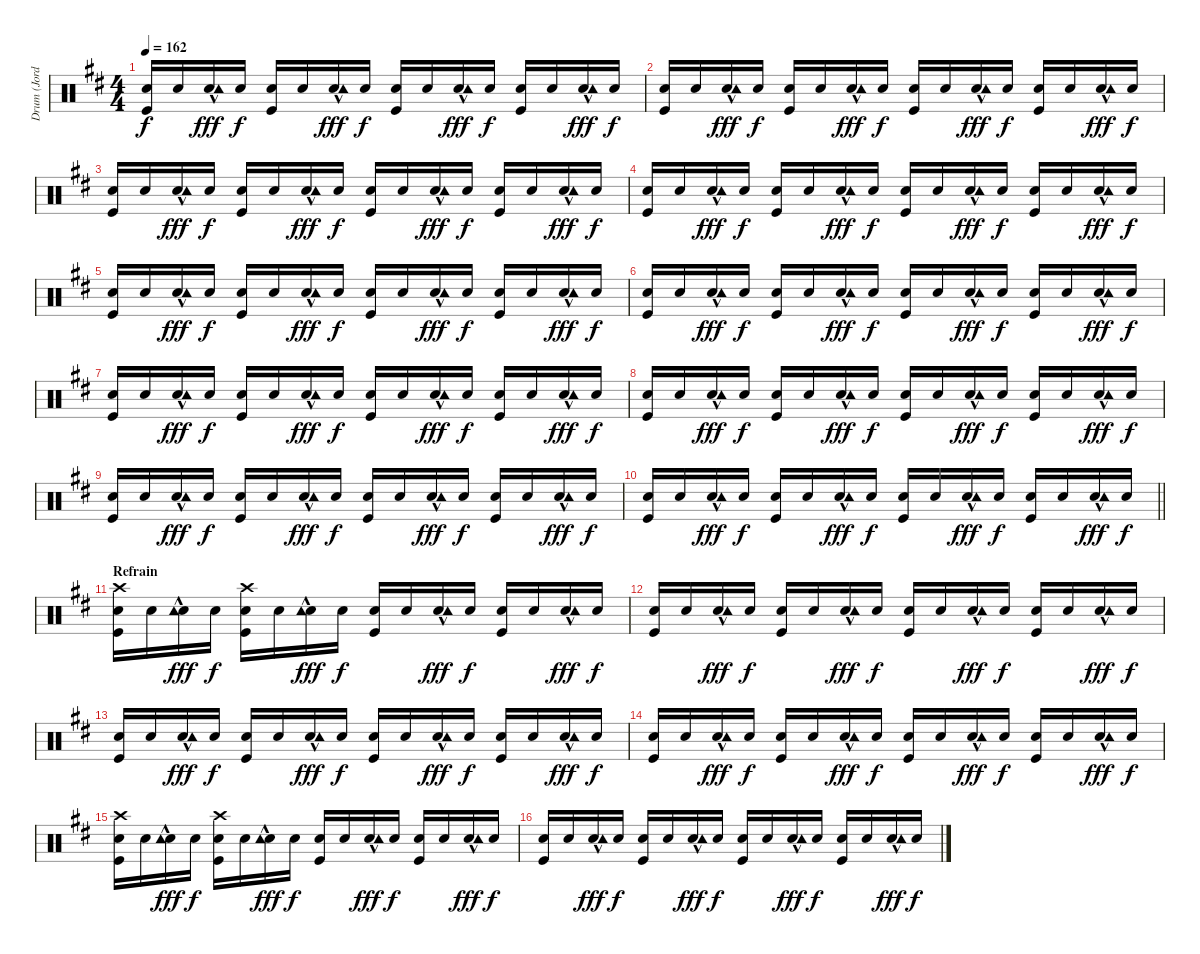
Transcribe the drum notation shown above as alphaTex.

\track ("Drum (Jordan)" "Drum (Jord") {instrument percussion}
\staff {score}
\articulation defaults
\ts (4 4)
\tempo 162
\clef neutral
\ks d
("Snare (hit) 2" "Kick (hit)").16{dy f} "Snare (hit) 2".16 ("Snare (hit) 2"{hac} "Tambourine (hit)").16{dy fff} "Snare (hit) 2".16{dy f} ("Snare (hit) 2" "Kick (hit)").16 "Snare (hit) 2".16 ("Snare (hit) 2"{hac} "Tambourine (hit)").16{dy fff} "Snare (hit) 2".16{dy f} ("Snare (hit) 2" "Kick (hit)").16 "Snare (hit) 2".16 ("Snare (hit) 2"{hac} "Tambourine (hit)").16{dy fff} "Snare (hit) 2".16{dy f} ("Snare (hit) 2" "Kick (hit)").16 "Snare (hit) 2".16 ("Snare (hit) 2"{hac} "Tambourine (hit)").16{dy fff} "Snare (hit) 2".16{dy f} |
("Snare (hit) 2" "Kick (hit)").16 "Snare (hit) 2".16 ("Snare (hit) 2"{hac} "Tambourine (hit)").16{dy fff} "Snare (hit) 2".16{dy f} ("Snare (hit) 2" "Kick (hit)").16 "Snare (hit) 2".16 ("Snare (hit) 2"{hac} "Tambourine (hit)").16{dy fff} "Snare (hit) 2".16{dy f} ("Snare (hit) 2" "Kick (hit)").16 "Snare (hit) 2".16 ("Snare (hit) 2"{hac} "Tambourine (hit)").16{dy fff} "Snare (hit) 2".16{dy f} ("Snare (hit) 2" "Kick (hit)").16 "Snare (hit) 2".16 ("Snare (hit) 2"{hac} "Tambourine (hit)").16{dy fff} "Snare (hit) 2".16{dy f} |
("Snare (hit) 2" "Kick (hit)").16 "Snare (hit) 2".16 ("Snare (hit) 2"{hac} "Tambourine (hit)").16{dy fff} "Snare (hit) 2".16{dy f} ("Snare (hit) 2" "Kick (hit)").16 "Snare (hit) 2".16 ("Snare (hit) 2"{hac} "Tambourine (hit)").16{dy fff} "Snare (hit) 2".16{dy f} ("Snare (hit) 2" "Kick (hit)").16 "Snare (hit) 2".16 ("Snare (hit) 2"{hac} "Tambourine (hit)").16{dy fff} "Snare (hit) 2".16{dy f} ("Snare (hit) 2" "Kick (hit)").16 "Snare (hit) 2".16 ("Snare (hit) 2"{hac} "Tambourine (hit)").16{dy fff} "Snare (hit) 2".16{dy f} |
("Snare (hit) 2" "Kick (hit)").16 "Snare (hit) 2".16 ("Snare (hit) 2"{hac} "Tambourine (hit)").16{dy fff} "Snare (hit) 2".16{dy f} ("Snare (hit) 2" "Kick (hit)").16 "Snare (hit) 2".16 ("Snare (hit) 2"{hac} "Tambourine (hit)").16{dy fff} "Snare (hit) 2".16{dy f} ("Snare (hit) 2" "Kick (hit)").16 "Snare (hit) 2".16 ("Snare (hit) 2"{hac} "Tambourine (hit)").16{dy fff} "Snare (hit) 2".16{dy f} ("Snare (hit) 2" "Kick (hit)").16 "Snare (hit) 2".16 ("Snare (hit) 2"{hac} "Tambourine (hit)").16{dy fff} "Snare (hit) 2".16{dy f} |
("Snare (hit) 2" "Kick (hit)").16 "Snare (hit) 2".16 ("Snare (hit) 2"{hac} "Tambourine (hit)").16{dy fff} "Snare (hit) 2".16{dy f} ("Snare (hit) 2" "Kick (hit)").16 "Snare (hit) 2".16 ("Snare (hit) 2"{hac} "Tambourine (hit)").16{dy fff} "Snare (hit) 2".16{dy f} ("Snare (hit) 2" "Kick (hit)").16 "Snare (hit) 2".16 ("Snare (hit) 2"{hac} "Tambourine (hit)").16{dy fff} "Snare (hit) 2".16{dy f} ("Snare (hit) 2" "Kick (hit)").16 "Snare (hit) 2".16 ("Snare (hit) 2"{hac} "Tambourine (hit)").16{dy fff} "Snare (hit) 2".16{dy f} |
("Snare (hit) 2" "Kick (hit)").16 "Snare (hit) 2".16 ("Snare (hit) 2"{hac} "Tambourine (hit)").16{dy fff} "Snare (hit) 2".16{dy f} ("Snare (hit) 2" "Kick (hit)").16 "Snare (hit) 2".16 ("Snare (hit) 2"{hac} "Tambourine (hit)").16{dy fff} "Snare (hit) 2".16{dy f} ("Snare (hit) 2" "Kick (hit)").16 "Snare (hit) 2".16 ("Snare (hit) 2"{hac} "Tambourine (hit)").16{dy fff} "Snare (hit) 2".16{dy f} ("Snare (hit) 2" "Kick (hit)").16 "Snare (hit) 2".16 ("Snare (hit) 2"{hac} "Tambourine (hit)").16{dy fff} "Snare (hit) 2".16{dy f} |
("Snare (hit) 2" "Kick (hit)").16 "Snare (hit) 2".16 ("Snare (hit) 2"{hac} "Tambourine (hit)").16{dy fff} "Snare (hit) 2".16{dy f} ("Snare (hit) 2" "Kick (hit)").16 "Snare (hit) 2".16 ("Snare (hit) 2"{hac} "Tambourine (hit)").16{dy fff} "Snare (hit) 2".16{dy f} ("Snare (hit) 2" "Kick (hit)").16 "Snare (hit) 2".16 ("Snare (hit) 2"{hac} "Tambourine (hit)").16{dy fff} "Snare (hit) 2".16{dy f} ("Snare (hit) 2" "Kick (hit)").16 "Snare (hit) 2".16 ("Snare (hit) 2"{hac} "Tambourine (hit)").16{dy fff} "Snare (hit) 2".16{dy f} |
("Snare (hit) 2" "Kick (hit)").16 "Snare (hit) 2".16 ("Snare (hit) 2"{hac} "Tambourine (hit)").16{dy fff} "Snare (hit) 2".16{dy f} ("Snare (hit) 2" "Kick (hit)").16 "Snare (hit) 2".16 ("Snare (hit) 2"{hac} "Tambourine (hit)").16{dy fff} "Snare (hit) 2".16{dy f} ("Snare (hit) 2" "Kick (hit)").16 "Snare (hit) 2".16 ("Snare (hit) 2"{hac} "Tambourine (hit)").16{dy fff} "Snare (hit) 2".16{dy f} ("Snare (hit) 2" "Kick (hit)").16 "Snare (hit) 2".16 ("Snare (hit) 2"{hac} "Tambourine (hit)").16{dy fff} "Snare (hit) 2".16{dy f} |
("Snare (hit) 2" "Kick (hit)").16 "Snare (hit) 2".16 ("Snare (hit) 2"{hac} "Tambourine (hit)").16{dy fff} "Snare (hit) 2".16{dy f} ("Snare (hit) 2" "Kick (hit)").16 "Snare (hit) 2".16 ("Snare (hit) 2"{hac} "Tambourine (hit)").16{dy fff} "Snare (hit) 2".16{dy f} ("Snare (hit) 2" "Kick (hit)").16 "Snare (hit) 2".16 ("Snare (hit) 2"{hac} "Tambourine (hit)").16{dy fff} "Snare (hit) 2".16{dy f} ("Snare (hit) 2" "Kick (hit)").16 "Snare (hit) 2".16 ("Snare (hit) 2"{hac} "Tambourine (hit)").16{dy fff} "Snare (hit) 2".16{dy f} |
\barLineRight lightlight
("Snare (hit) 2" "Kick (hit)").16 "Snare (hit) 2".16 ("Snare (hit) 2"{hac} "Tambourine (hit)").16{dy fff} "Snare (hit) 2".16{dy f} ("Snare (hit) 2" "Kick (hit)").16 "Snare (hit) 2".16 ("Snare (hit) 2"{hac} "Tambourine (hit)").16{dy fff} "Snare (hit) 2".16{dy f} ("Snare (hit) 2" "Kick (hit)").16 "Snare (hit) 2".16 ("Snare (hit) 2"{hac} "Tambourine (hit)").16{dy fff} "Snare (hit) 2".16{dy f} ("Snare (hit) 2" "Kick (hit)").16 "Snare (hit) 2".16 ("Snare (hit) 2"{hac} "Tambourine (hit)").16{dy fff} "Snare (hit) 2".16{dy f} |
\section ("" "Refrain")
("Snare (hit) 2" "Kick (hit)" "Crash high (hit)").16 "Snare (hit) 2".16 ("Snare (hit) 2"{hac} "Tambourine (hit)").16{dy fff} "Snare (hit) 2".16{dy f} ("Snare (hit) 2" "Kick (hit)" "Crash high (hit)").16 "Snare (hit) 2".16 ("Snare (hit) 2"{hac} "Tambourine (hit)").16{dy fff} "Snare (hit) 2".16{dy f} ("Snare (hit) 2" "Kick (hit)").16 "Snare (hit) 2".16 ("Snare (hit) 2"{hac} "Tambourine (hit)").16{dy fff} "Snare (hit) 2".16{dy f} ("Snare (hit) 2" "Kick (hit)").16 "Snare (hit) 2".16 ("Snare (hit) 2"{hac} "Tambourine (hit)").16{dy fff} "Snare (hit) 2".16{dy f} |
("Snare (hit) 2" "Kick (hit)").16 "Snare (hit) 2".16 ("Snare (hit) 2"{hac} "Tambourine (hit)").16{dy fff} "Snare (hit) 2".16{dy f} ("Snare (hit) 2" "Kick (hit)").16 "Snare (hit) 2".16 ("Snare (hit) 2"{hac} "Tambourine (hit)").16{dy fff} "Snare (hit) 2".16{dy f} ("Snare (hit) 2" "Kick (hit)").16 "Snare (hit) 2".16 ("Snare (hit) 2"{hac} "Tambourine (hit)").16{dy fff} "Snare (hit) 2".16{dy f} ("Snare (hit) 2" "Kick (hit)").16 "Snare (hit) 2".16 ("Snare (hit) 2"{hac} "Tambourine (hit)").16{dy fff} "Snare (hit) 2".16{dy f} |
("Snare (hit) 2" "Kick (hit)").16 "Snare (hit) 2".16 ("Snare (hit) 2"{hac} "Tambourine (hit)").16{dy fff} "Snare (hit) 2".16{dy f} ("Snare (hit) 2" "Kick (hit)").16 "Snare (hit) 2".16 ("Snare (hit) 2"{hac} "Tambourine (hit)").16{dy fff} "Snare (hit) 2".16{dy f} ("Snare (hit) 2" "Kick (hit)").16 "Snare (hit) 2".16 ("Snare (hit) 2"{hac} "Tambourine (hit)").16{dy fff} "Snare (hit) 2".16{dy f} ("Snare (hit) 2" "Kick (hit)").16 "Snare (hit) 2".16 ("Snare (hit) 2"{hac} "Tambourine (hit)").16{dy fff} "Snare (hit) 2".16{dy f} |
("Snare (hit) 2" "Kick (hit)").16 "Snare (hit) 2".16 ("Snare (hit) 2"{hac} "Tambourine (hit)").16{dy fff} "Snare (hit) 2".16{dy f} ("Snare (hit) 2" "Kick (hit)").16 "Snare (hit) 2".16 ("Snare (hit) 2"{hac} "Tambourine (hit)").16{dy fff} "Snare (hit) 2".16{dy f} ("Snare (hit) 2" "Kick (hit)").16 "Snare (hit) 2".16 ("Snare (hit) 2"{hac} "Tambourine (hit)").16{dy fff} "Snare (hit) 2".16{dy f} ("Snare (hit) 2" "Kick (hit)").16 "Snare (hit) 2".16 ("Snare (hit) 2"{hac} "Tambourine (hit)").16{dy fff} "Snare (hit) 2".16{dy f} |
("Snare (hit) 2" "Kick (hit)" "Crash high (hit)").16 "Snare (hit) 2".16 ("Snare (hit) 2"{hac} "Tambourine (hit)").16{dy fff} "Snare (hit) 2".16{dy f} ("Snare (hit) 2" "Kick (hit)" "Crash high (hit)").16 "Snare (hit) 2".16 ("Snare (hit) 2"{hac} "Tambourine (hit)").16{dy fff} "Snare (hit) 2".16{dy f} ("Snare (hit) 2" "Kick (hit)").16 "Snare (hit) 2".16 ("Snare (hit) 2"{hac} "Tambourine (hit)").16{dy fff} "Snare (hit) 2".16{dy f} ("Snare (hit) 2" "Kick (hit)").16 "Snare (hit) 2".16 ("Snare (hit) 2"{hac} "Tambourine (hit)").16{dy fff} "Snare (hit) 2".16{dy f} |
("Snare (hit) 2" "Kick (hit)").16 "Snare (hit) 2".16 ("Snare (hit) 2"{hac} "Tambourine (hit)").16{dy fff} "Snare (hit) 2".16{dy f} ("Snare (hit) 2" "Kick (hit)").16 "Snare (hit) 2".16 ("Snare (hit) 2"{hac} "Tambourine (hit)").16{dy fff} "Snare (hit) 2".16{dy f} ("Snare (hit) 2" "Kick (hit)").16 "Snare (hit) 2".16 ("Snare (hit) 2"{hac} "Tambourine (hit)").16{dy fff} "Snare (hit) 2".16{dy f} ("Snare (hit) 2" "Kick (hit)").16 "Snare (hit) 2".16 ("Snare (hit) 2"{hac} "Tambourine (hit)").16{dy fff} "Snare (hit) 2".16{dy f}
